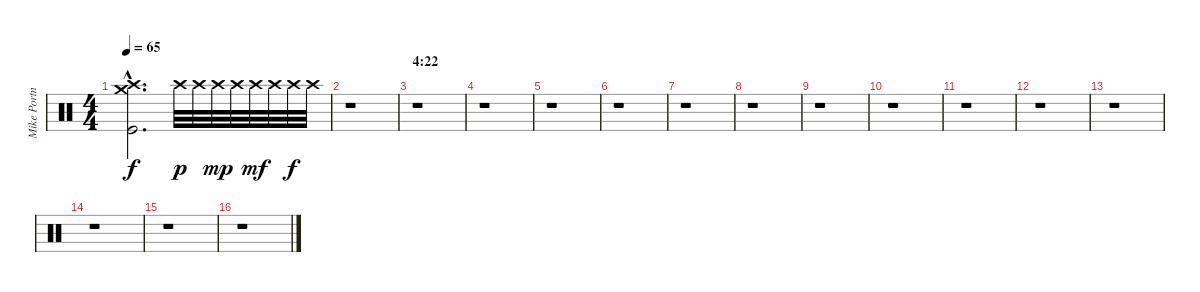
\track ("Mike Portnoy" "Mike Portn") {instrument percussion}
\staff {score}
\articulation defaults
\ts (4 4)
\tempo 65
\clef neutral
\ks c
("Crash high (hit)"{hac} "Crash medium (hit)"{hac} "Kick (hit)"{hac}).2{d dy f} "Crash high (hit)".32{dy p} "Crash high (hit)".32 "Crash high (hit)".32{dy mp} "Crash high (hit)".32 "Crash high (hit)".32{dy mf} "Crash high (hit)".32 "Crash high (hit)".32{dy f} "Crash high (hit)".32 |
r.1 |
\section ("" "4:22")
r.1 |
r.1 |
r.1 |
r.1 |
r.1 |
r.1 |
r.1 |
r.1 |
r.1 |
r.1 |
r.1 |
r.1 |
r.1 |
r.1
